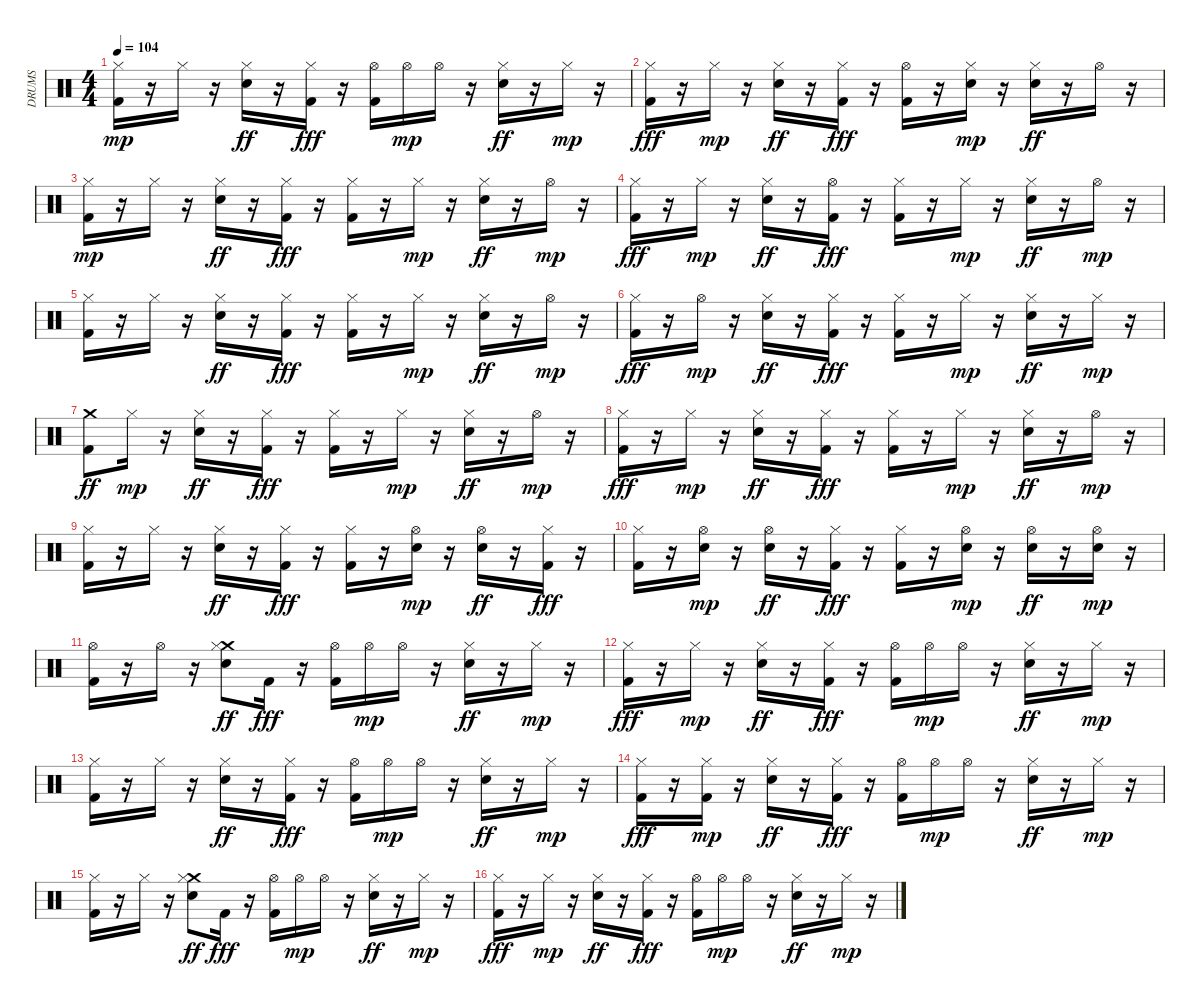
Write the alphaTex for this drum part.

\track ("DRUMS" "DRUMS") {instrument percussion}
\staff {score}
\articulation defaults
\ts (4 4)
\tempo 104
\clef neutral
\ks c
("Kick (hit) 2" "Hi-Hat (closed)").16{dy mp} r.16 "Hi-Hat (closed)".16 r.16 ("Hi-Hat (closed)" "Snare (hit) 2").16{dy ff} r.16 ("Hi-Hat (closed)" "Kick (hit) 2").16{dy fff} r.16 ("Hi-Hat (open)" "Kick (hit) 2").16 "Hi-Hat (open)".16{dy mp} "Hi-Hat (open)".16 r.16 ("Hi-Hat (closed)" "Snare (hit) 2").16{dy ff} r.16 "Hi-Hat (closed)".16{dy mp} r.16 |
("Hi-Hat (closed)" "Kick (hit) 2").16{dy fff} r.16 "Hi-Hat (closed)".16{dy mp} r.16 ("Hi-Hat (closed)" "Snare (hit) 2").16{dy ff} r.16 ("Hi-Hat (closed)" "Kick (hit) 2").16{dy fff} r.16 ("Hi-Hat (open)" "Kick (hit) 2").16 r.16 ("Snare (hit) 2" "Hi-Hat (closed)").16{dy mp} r.16 ("Hi-Hat (closed)" "Snare (hit) 2").16{dy ff} r.16 "Hi-Hat (open)".16 r.16 |
("Kick (hit) 2" "Hi-Hat (closed)").16{dy mp} r.16 "Hi-Hat (closed)".16 r.16 ("Hi-Hat (closed)" "Snare (hit) 2").16{dy ff} r.16 ("Hi-Hat (closed)" "Kick (hit) 2").16{dy fff} r.16 ("Hi-Hat (closed)" "Kick (hit) 2").16 r.16 "Hi-Hat (closed)".16{dy mp} r.16 ("Hi-Hat (closed)" "Snare (hit) 2").16{dy ff} r.16 "Hi-Hat (open)".16{dy mp} r.16 |
("Hi-Hat (closed)" "Kick (hit) 2").16{dy fff} r.16 "Hi-Hat (closed)".16{dy mp} r.16 ("Hi-Hat (closed)" "Snare (hit) 2").16{dy ff} r.16 ("Hi-Hat (open)" "Kick (hit) 2").16{dy fff} r.16 ("Hi-Hat (closed)" "Kick (hit) 2").16 r.16 "Hi-Hat (closed)".16{dy mp} r.16 ("Hi-Hat (closed)" "Snare (hit) 2").16{dy ff} r.16 "Hi-Hat (open)".16{dy mp} r.16 |
("Kick (hit) 2" "Hi-Hat (closed)").16 r.16 "Hi-Hat (closed)".16 r.16 ("Hi-Hat (closed)" "Snare (hit) 2").16{dy ff} r.16 ("Hi-Hat (closed)" "Kick (hit) 2").16{dy fff} r.16 ("Hi-Hat (closed)" "Kick (hit) 2").16 r.16 "Hi-Hat (closed)".16{dy mp} r.16 ("Hi-Hat (closed)" "Snare (hit) 2").16{dy ff} r.16 "Hi-Hat (open)".16{dy mp} r.16 |
("Hi-Hat (closed)" "Kick (hit) 2").16{dy fff} r.16 "Hi-Hat (open)".16{dy mp} r.16 ("Hi-Hat (closed)" "Snare (hit) 2").16{dy ff} r.16 ("Hi-Hat (closed)" "Kick (hit) 2").16{dy fff} r.16 ("Hi-Hat (closed)" "Kick (hit) 2").16 r.16 "Hi-Hat (closed)".16{dy mp} r.16 ("Hi-Hat (closed)" "Snare (hit) 2").16{dy ff} r.16 "Hi-Hat (closed)".16{dy mp} r.16 |
("Kick (hit) 2" "Crash medium (hit)").8{dy ff} "Hi-Hat (closed)".16{dy mp} r.16 ("Hi-Hat (closed)" "Snare (hit) 2").16{dy ff} r.16 ("Hi-Hat (closed)" "Kick (hit) 2").16{dy fff} r.16 ("Hi-Hat (closed)" "Kick (hit) 2").16 r.16 "Hi-Hat (closed)".16{dy mp} r.16 ("Hi-Hat (closed)" "Snare (hit) 2").16{dy ff} r.16 "Hi-Hat (open)".16{dy mp} r.16 |
("Hi-Hat (closed)" "Kick (hit) 2").16{dy fff} r.16 "Hi-Hat (closed)".16{dy mp} r.16 ("Hi-Hat (closed)" "Snare (hit) 2").16{dy ff} r.16 ("Hi-Hat (closed)" "Kick (hit) 2").16{dy fff} r.16 ("Hi-Hat (closed)" "Kick (hit) 2").16 r.16 "Hi-Hat (closed)".16{dy mp} r.16 ("Hi-Hat (closed)" "Snare (hit) 2").16{dy ff} r.16 "Hi-Hat (open)".16{dy mp} r.16 |
("Kick (hit) 2" "Hi-Hat (closed)").16 r.16 "Hi-Hat (closed)".16 r.16 ("Hi-Hat (closed)" "Snare (hit) 2").16{dy ff} r.16 ("Hi-Hat (closed)" "Kick (hit) 2").16{dy fff} r.16 ("Hi-Hat (closed)" "Kick (hit) 2").16 r.16 ("Snare (hit) 2" "Hi-Hat (open)").16{dy mp} r.16 ("Hi-Hat (open)" "Snare (hit) 2").16{dy ff} r.16 ("Kick (hit) 2" "Hi-Hat (closed)").16{dy fff} r.16 |
("Hi-Hat (closed)" "Kick (hit) 2").16 r.16 ("Snare (hit) 2" "Hi-Hat (open)").16{dy mp} r.16 ("Hi-Hat (open)" "Snare (hit) 2").16{dy ff} r.16 ("Hi-Hat (closed)" "Kick (hit) 2").16{dy fff} r.16 ("Hi-Hat (closed)" "Kick (hit) 2").16 r.16 ("Snare (hit) 2" "Hi-Hat (open)").16{dy mp} r.16 ("Hi-Hat (open)" "Snare (hit) 2").16{dy ff} r.16 ("Snare (hit) 2" "Hi-Hat (open)").16{dy mp} r.16 |
("Kick (hit) 2" "Hi-Hat (open)").16 r.16 "Hi-Hat (open)".16 r.16 ("Crash medium (hit)" "Hi-Hat (closed)" "Snare (hit) 2").8{dy ff} "Kick (hit) 2".16{dy fff} r.16 ("Hi-Hat (open)" "Kick (hit) 2").16 "Hi-Hat (open)".16{dy mp} "Hi-Hat (open)".16 r.16 ("Hi-Hat (closed)" "Snare (hit) 2").16{dy ff} r.16 "Hi-Hat (closed)".16{dy mp} r.16 |
("Hi-Hat (closed)" "Kick (hit) 2").16{dy fff} r.16 "Hi-Hat (closed)".16{dy mp} r.16 ("Hi-Hat (closed)" "Snare (hit) 2").16{dy ff} r.16 ("Hi-Hat (closed)" "Kick (hit) 2").16{dy fff} r.16 ("Hi-Hat (open)" "Kick (hit) 2").16 "Hi-Hat (open)".16{dy mp} "Hi-Hat (open)".16 r.16 ("Hi-Hat (closed)" "Snare (hit) 2").16{dy ff} r.16 "Hi-Hat (closed)".16{dy mp} r.16 |
("Kick (hit) 2" "Hi-Hat (closed)").16 r.16 "Hi-Hat (closed)".16 r.16 ("Hi-Hat (closed)" "Snare (hit) 2").16{dy ff} r.16 ("Hi-Hat (closed)" "Kick (hit) 2").16{dy fff} r.16 ("Hi-Hat (open)" "Kick (hit) 2").16 "Hi-Hat (open)".16{dy mp} "Hi-Hat (open)".16 r.16 ("Hi-Hat (closed)" "Snare (hit) 2").16{dy ff} r.16 "Hi-Hat (closed)".16{dy mp} r.16 |
("Hi-Hat (closed)" "Kick (hit) 2").16{dy fff} r.16 ("Kick (hit) 2" "Hi-Hat (closed)").16{dy mp} r.16 ("Hi-Hat (closed)" "Snare (hit) 2").16{dy ff} r.16 ("Hi-Hat (closed)" "Kick (hit) 2").16{dy fff} r.16 ("Hi-Hat (open)" "Kick (hit) 2").16 "Hi-Hat (open)".16{dy mp} "Hi-Hat (open)".16 r.16 ("Hi-Hat (closed)" "Snare (hit) 2").16{dy ff} r.16 "Hi-Hat (closed)".16{dy mp} r.16 |
("Kick (hit) 2" "Hi-Hat (closed)").16 r.16 "Hi-Hat (closed)".16 r.16 ("Crash medium (hit)" "Hi-Hat (closed)" "Snare (hit) 2").8{dy ff} "Kick (hit) 2".16{dy fff} r.16 ("Hi-Hat (open)" "Kick (hit) 2").16 "Hi-Hat (open)".16{dy mp} "Hi-Hat (open)".16 r.16 ("Hi-Hat (closed)" "Snare (hit) 2").16{dy ff} r.16 "Hi-Hat (closed)".16{dy mp} r.16 |
("Hi-Hat (closed)" "Kick (hit) 2").16{dy fff} r.16 "Hi-Hat (closed)".16{dy mp} r.16 ("Hi-Hat (closed)" "Snare (hit) 2").16{dy ff} r.16 ("Hi-Hat (closed)" "Kick (hit) 2").16{dy fff} r.16 ("Hi-Hat (open)" "Kick (hit) 2").16 "Hi-Hat (open)".16{dy mp} "Hi-Hat (open)".16 r.16 ("Hi-Hat (closed)" "Snare (hit) 2").16{dy ff} r.16 "Hi-Hat (closed)".16{dy mp} r.16
